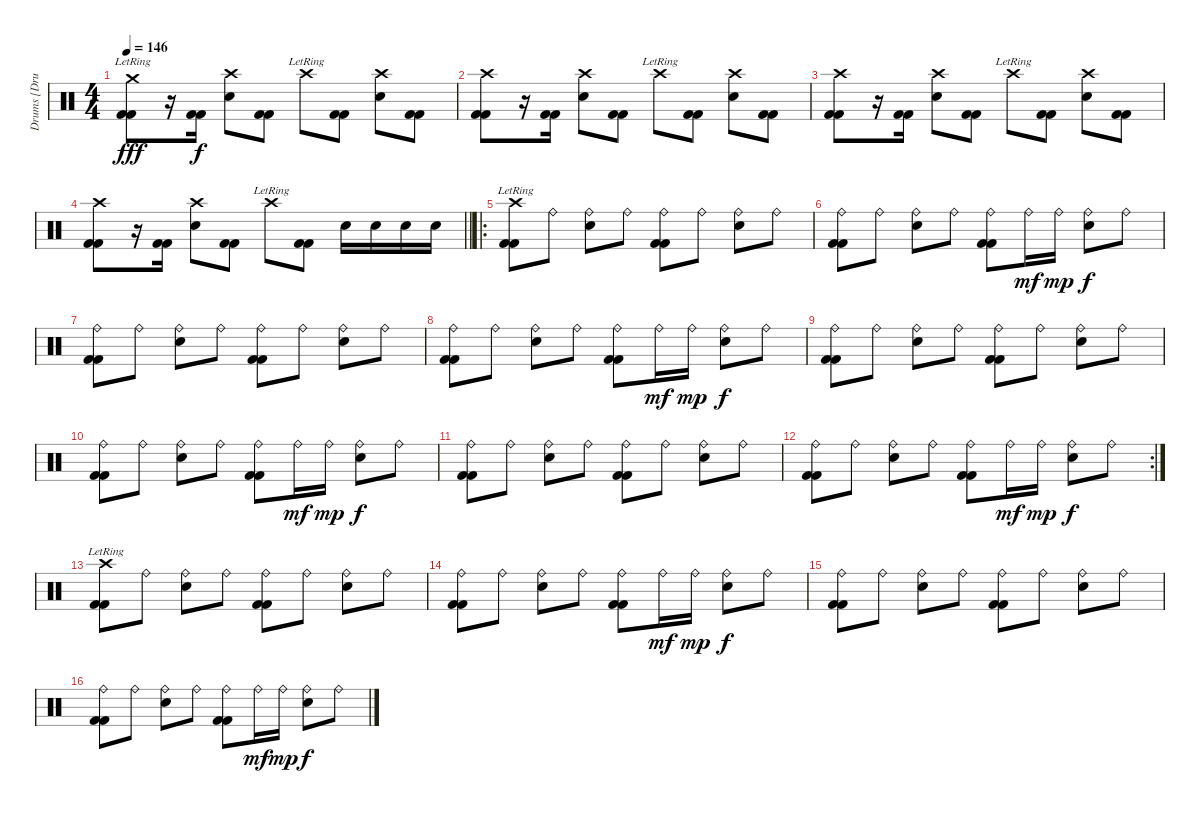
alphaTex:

\track ("Drums [Drums]" "Drums [Dru") {instrument percussion}
\staff {score}
\articulation defaults
\ts (4 4)
\tempo 146
\clef neutral
\ks c
("Crash medium (hit)"{lr} "Kick (hit) 2" "Kick (hit) 2").8{dy fff} r.16 ("Kick (hit) 2" "Kick (hit) 2").16{dy f} ("Crash high (hit)" "Snare (hit) 2").8 ("Kick (hit) 2" "Kick (hit) 2").8 "Crash high (hit)"{lr}.8 ("Kick (hit) 2" "Kick (hit) 2").8 ("Crash high (hit)" "Snare (hit) 2").8 ("Kick (hit) 2" "Kick (hit) 2").8 |
("Crash high (hit)" "Kick (hit) 2" "Kick (hit) 2").8 r.16 ("Kick (hit) 2" "Kick (hit) 2").16 ("Crash high (hit)" "Snare (hit) 2").8 ("Kick (hit) 2" "Kick (hit) 2").8 "Crash high (hit)"{lr}.8 ("Kick (hit) 2" "Kick (hit) 2").8 ("Crash high (hit)" "Snare (hit) 2").8 ("Kick (hit) 2" "Kick (hit) 2").8 |
("Crash high (hit)" "Kick (hit) 2" "Kick (hit) 2").8 r.16 ("Kick (hit) 2" "Kick (hit) 2").16 ("Crash high (hit)" "Snare (hit) 2").8 ("Kick (hit) 2" "Kick (hit) 2").8 "Crash high (hit)"{lr}.8 ("Kick (hit) 2" "Kick (hit) 2").8 ("Crash high (hit)" "Snare (hit) 2").8 ("Kick (hit) 2" "Kick (hit) 2").8 |
\barLineRight lightlight
("Crash high (hit)" "Kick (hit) 2" "Kick (hit) 2").8 r.16 ("Kick (hit) 2" "Kick (hit) 2").16 ("Crash high (hit)" "Snare (hit) 2").8 ("Kick (hit) 2" "Kick (hit) 2").8 "Crash high (hit)"{lr}.8 ("Kick (hit) 2" "Kick (hit) 2").8 "Snare (hit) 2".16 "Snare (hit) 2".16 "Snare (hit) 2".16 "Snare (hit) 2".16 |
\ro
("Crash high (hit)"{lr} "Kick (hit) 2" "Kick (hit) 2").8 "Ride (bell)".8 ("Ride (bell)" "Snare (hit) 2").8 "Ride (bell)".8 ("Ride (bell)" "Kick (hit) 2" "Kick (hit) 2").8 "Ride (bell)".8 ("Ride (bell)" "Snare (hit) 2").8 "Ride (bell)".8 |
("Ride (bell)" "Kick (hit) 2" "Kick (hit) 2").8 "Ride (bell)".8 ("Ride (bell)" "Snare (hit) 2").8 "Ride (bell)".8 ("Ride (bell)" "Kick (hit) 2" "Kick (hit) 2").8 "Ride (bell)".16{dy mf} "Ride (bell)".16{dy mp} ("Ride (bell)" "Snare (hit) 2").8{dy f} "Ride (bell)".8 |
("Ride (bell)" "Kick (hit) 2" "Kick (hit) 2").8 "Ride (bell)".8 ("Ride (bell)" "Snare (hit) 2").8 "Ride (bell)".8 ("Ride (bell)" "Kick (hit) 2" "Kick (hit) 2").8 "Ride (bell)".8 ("Ride (bell)" "Snare (hit) 2").8 "Ride (bell)".8 |
("Ride (bell)" "Kick (hit) 2" "Kick (hit) 2").8 "Ride (bell)".8 ("Ride (bell)" "Snare (hit) 2").8 "Ride (bell)".8 ("Ride (bell)" "Kick (hit) 2" "Kick (hit) 2").8 "Ride (bell)".16{dy mf} "Ride (bell)".16{dy mp} ("Ride (bell)" "Snare (hit) 2").8{dy f} "Ride (bell)".8 |
("Ride (bell)" "Kick (hit) 2" "Kick (hit) 2").8 "Ride (bell)".8 ("Ride (bell)" "Snare (hit) 2").8 "Ride (bell)".8 ("Ride (bell)" "Kick (hit) 2" "Kick (hit) 2").8 "Ride (bell)".8 ("Ride (bell)" "Snare (hit) 2").8 "Ride (bell)".8 |
("Ride (bell)" "Kick (hit) 2" "Kick (hit) 2").8 "Ride (bell)".8 ("Ride (bell)" "Snare (hit) 2").8 "Ride (bell)".8 ("Ride (bell)" "Kick (hit) 2" "Kick (hit) 2").8 "Ride (bell)".16{dy mf} "Ride (bell)".16{dy mp} ("Ride (bell)" "Snare (hit) 2").8{dy f} "Ride (bell)".8 |
("Ride (bell)" "Kick (hit) 2" "Kick (hit) 2").8 "Ride (bell)".8 ("Ride (bell)" "Snare (hit) 2").8 "Ride (bell)".8 ("Ride (bell)" "Kick (hit) 2" "Kick (hit) 2").8 "Ride (bell)".8 ("Ride (bell)" "Snare (hit) 2").8 "Ride (bell)".8 |
\rc 2
("Ride (bell)" "Kick (hit) 2" "Kick (hit) 2").8 "Ride (bell)".8 ("Ride (bell)" "Snare (hit) 2").8 "Ride (bell)".8 ("Ride (bell)" "Kick (hit) 2" "Kick (hit) 2").8 "Ride (bell)".16{dy mf} "Ride (bell)".16{dy mp} ("Ride (bell)" "Snare (hit) 2").8{dy f} "Ride (bell)".8 |
("Crash high (hit)"{lr} "Kick (hit) 2" "Kick (hit) 2").8 "Ride (bell)".8 ("Ride (bell)" "Snare (hit) 2").8 "Ride (bell)".8 ("Ride (bell)" "Kick (hit) 2" "Kick (hit) 2").8 "Ride (bell)".8 ("Ride (bell)" "Snare (hit) 2").8 "Ride (bell)".8 |
("Ride (bell)" "Kick (hit) 2" "Kick (hit) 2").8 "Ride (bell)".8 ("Ride (bell)" "Snare (hit) 2").8 "Ride (bell)".8 ("Ride (bell)" "Kick (hit) 2" "Kick (hit) 2").8 "Ride (bell)".16{dy mf} "Ride (bell)".16{dy mp} ("Ride (bell)" "Snare (hit) 2").8{dy f} "Ride (bell)".8 |
("Ride (bell)" "Kick (hit) 2" "Kick (hit) 2").8 "Ride (bell)".8 ("Ride (bell)" "Snare (hit) 2").8 "Ride (bell)".8 ("Ride (bell)" "Kick (hit) 2" "Kick (hit) 2").8 "Ride (bell)".8 ("Ride (bell)" "Snare (hit) 2").8 "Ride (bell)".8 |
("Ride (bell)" "Kick (hit) 2" "Kick (hit) 2").8 "Ride (bell)".8 ("Ride (bell)" "Snare (hit) 2").8 "Ride (bell)".8 ("Ride (bell)" "Kick (hit) 2" "Kick (hit) 2").8 "Ride (bell)".16{dy mf} "Ride (bell)".16{dy mp} ("Ride (bell)" "Snare (hit) 2").8{dy f} "Ride (bell)".8
